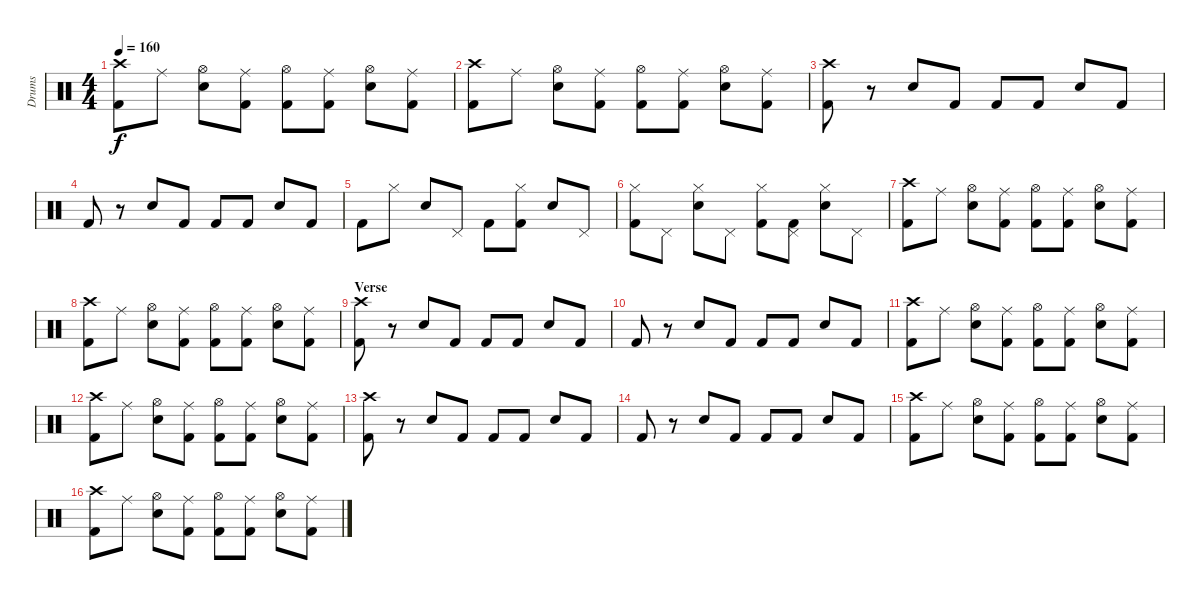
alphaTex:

\track ("Drums" "Drums") {instrument percussion}
\staff {score}
\articulation defaults
\ts (4 4)
\tempo 160
\clef neutral
\ks c
("Kick (hit) 2" "Crash high (hit)").8{dy f} "Ride (middle)".8 ("Electric Snare (hit)" "Hi-Hat (open)").8 ("Kick (hit) 2" "Ride (middle)").8 ("Kick (hit) 2" "Hi-Hat (open)").8 ("Kick (hit) 2" "Ride (middle)").8 ("Electric Snare (hit)" "Hi-Hat (open)").8 ("Kick (hit) 2" "Ride (middle)").8 |
("Kick (hit) 2" "Crash high (hit)").8 "Ride (middle)".8 ("Electric Snare (hit)" "Hi-Hat (open)").8 ("Kick (hit) 2" "Ride (middle)").8 ("Kick (hit) 2" "Hi-Hat (open)").8 ("Kick (hit) 2" "Ride (middle)").8 ("Electric Snare (hit)" "Hi-Hat (open)").8 ("Kick (hit) 2" "Ride (middle)").8 |
("Kick (hit) 2" "Crash high (hit)").8 r.8 "Electric Snare (hit)".8 "Kick (hit) 2".8 "Kick (hit) 2".8 "Kick (hit) 2".8 "Electric Snare (hit)".8 "Kick (hit) 2".8 |
"Kick (hit) 2".8 r.8 "Electric Snare (hit)".8 "Kick (hit) 2".8 "Kick (hit) 2".8 "Kick (hit) 2".8 "Electric Snare (hit)".8 "Kick (hit) 2".8 |
"Kick (hit) 2".8 "Hi-Hat (closed)".8 "Electric Snare (hit)".8 "Pedal Hi-Hat (hit)".8 "Kick (hit) 2".8 ("Kick (hit) 2" "Hi-Hat (closed)").8 "Electric Snare (hit)".8 "Pedal Hi-Hat (hit)".8 |
("Kick (hit) 2" "Hi-Hat (closed)").8 "Pedal Hi-Hat (hit)".8 ("Electric Snare (hit)" "Hi-Hat (closed)").8 "Pedal Hi-Hat (hit)".8 ("Kick (hit) 2" "Hi-Hat (closed)").8 ("Kick (hit) 2" "Pedal Hi-Hat (hit)").8 ("Electric Snare (hit)" "Hi-Hat (closed)").8 "Pedal Hi-Hat (hit)".8 |
("Kick (hit) 2" "Crash high (hit)").8 "Ride (middle)".8 ("Electric Snare (hit)" "Hi-Hat (open)").8 ("Kick (hit) 2" "Ride (middle)").8 ("Kick (hit) 2" "Hi-Hat (open)").8 ("Kick (hit) 2" "Ride (middle)").8 ("Electric Snare (hit)" "Hi-Hat (open)").8 ("Kick (hit) 2" "Ride (middle)").8 |
("Kick (hit) 2" "Crash high (hit)").8 "Ride (middle)".8 ("Electric Snare (hit)" "Hi-Hat (open)").8 ("Kick (hit) 2" "Ride (middle)").8 ("Kick (hit) 2" "Hi-Hat (open)").8 ("Kick (hit) 2" "Ride (middle)").8 ("Electric Snare (hit)" "Hi-Hat (open)").8 ("Kick (hit) 2" "Ride (middle)").8 |
\section ("" "Verse")
("Kick (hit) 2" "Crash high (hit)").8 r.8 "Electric Snare (hit)".8 "Kick (hit) 2".8 "Kick (hit) 2".8 "Kick (hit) 2".8 "Electric Snare (hit)".8 "Kick (hit) 2".8 |
"Kick (hit) 2".8 r.8 "Electric Snare (hit)".8 "Kick (hit) 2".8 "Kick (hit) 2".8 "Kick (hit) 2".8 "Electric Snare (hit)".8 "Kick (hit) 2".8 |
("Kick (hit) 2" "Crash high (hit)").8 "Ride (middle)".8 ("Electric Snare (hit)" "Hi-Hat (open)").8 ("Kick (hit) 2" "Ride (middle)").8 ("Kick (hit) 2" "Hi-Hat (open)").8 ("Kick (hit) 2" "Ride (middle)").8 ("Electric Snare (hit)" "Hi-Hat (open)").8 ("Kick (hit) 2" "Ride (middle)").8 |
("Kick (hit) 2" "Crash high (hit)").8 "Ride (middle)".8 ("Electric Snare (hit)" "Hi-Hat (open)").8 ("Kick (hit) 2" "Ride (middle)").8 ("Kick (hit) 2" "Hi-Hat (open)").8 ("Kick (hit) 2" "Ride (middle)").8 ("Electric Snare (hit)" "Hi-Hat (open)").8 ("Kick (hit) 2" "Ride (middle)").8 |
("Kick (hit) 2" "Crash high (hit)").8 r.8 "Electric Snare (hit)".8 "Kick (hit) 2".8 "Kick (hit) 2".8 "Kick (hit) 2".8 "Electric Snare (hit)".8 "Kick (hit) 2".8 |
"Kick (hit) 2".8 r.8 "Electric Snare (hit)".8 "Kick (hit) 2".8 "Kick (hit) 2".8 "Kick (hit) 2".8 "Electric Snare (hit)".8 "Kick (hit) 2".8 |
("Kick (hit) 2" "Crash high (hit)").8 "Ride (middle)".8 ("Electric Snare (hit)" "Hi-Hat (open)").8 ("Kick (hit) 2" "Ride (middle)").8 ("Kick (hit) 2" "Hi-Hat (open)").8 ("Kick (hit) 2" "Ride (middle)").8 ("Electric Snare (hit)" "Hi-Hat (open)").8 ("Kick (hit) 2" "Ride (middle)").8 |
("Kick (hit) 2" "Crash high (hit)").8 "Ride (middle)".8 ("Electric Snare (hit)" "Hi-Hat (open)").8 ("Kick (hit) 2" "Ride (middle)").8 ("Kick (hit) 2" "Hi-Hat (open)").8 ("Kick (hit) 2" "Ride (middle)").8 ("Electric Snare (hit)" "Hi-Hat (open)").8 ("Kick (hit) 2" "Ride (middle)").8
